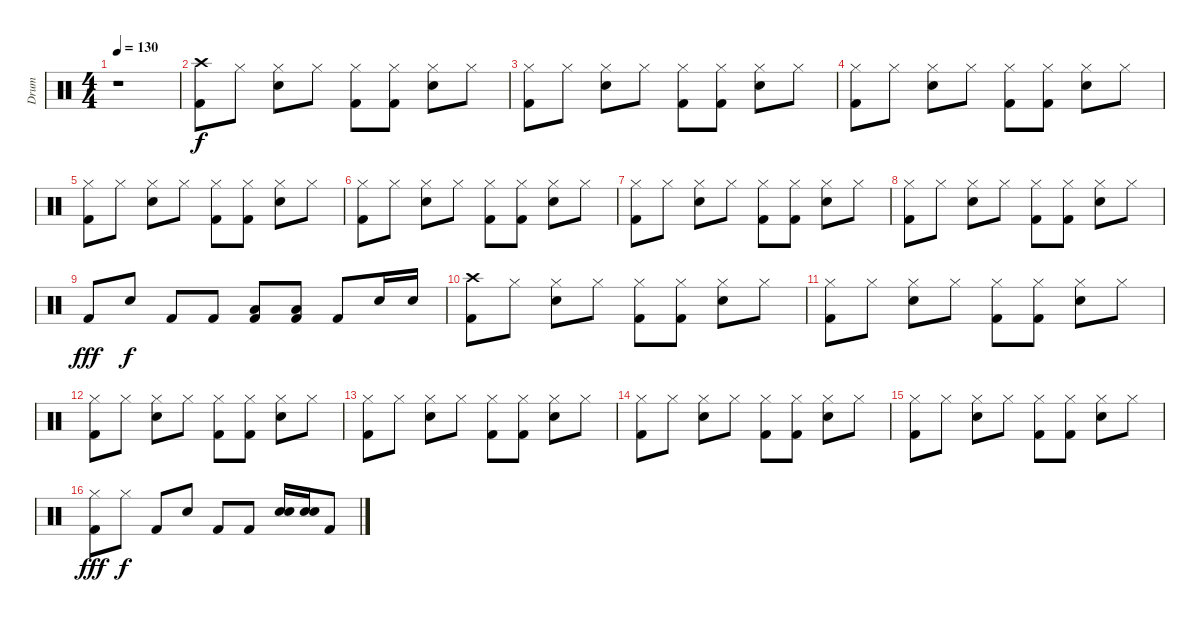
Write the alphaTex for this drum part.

\track ("Drum" "Drum") {instrument percussion}
\staff {score}
\articulation defaults
\ts (4 4)
\tempo 130
\clef neutral
\ks c
r.1{dy f} |
("Crash high (hit)" "Kick (hit) 2").8 "Hi-Hat (closed)".8 ("Hi-Hat (closed)" "Snare (hit) 2").8 "Hi-Hat (closed)".8 ("Hi-Hat (closed)" "Kick (hit) 2").8 ("Hi-Hat (closed)" "Kick (hit) 2").8 ("Hi-Hat (closed)" "Snare (hit) 2").8 "Hi-Hat (closed)".8 |
("Hi-Hat (closed)" "Kick (hit) 2").8 "Hi-Hat (closed)".8 ("Hi-Hat (closed)" "Snare (hit) 2").8 "Hi-Hat (closed)".8 ("Hi-Hat (closed)" "Kick (hit) 2").8 ("Hi-Hat (closed)" "Kick (hit) 2").8 ("Hi-Hat (closed)" "Snare (hit) 2").8 "Hi-Hat (closed)".8 |
("Hi-Hat (closed)" "Kick (hit) 2").8 "Hi-Hat (closed)".8 ("Hi-Hat (closed)" "Snare (hit) 2").8 "Hi-Hat (closed)".8 ("Hi-Hat (closed)" "Kick (hit) 2").8 ("Hi-Hat (closed)" "Kick (hit) 2").8 ("Hi-Hat (closed)" "Snare (hit) 2").8 "Hi-Hat (closed)".8 |
("Hi-Hat (closed)" "Kick (hit) 2").8 "Hi-Hat (closed)".8 ("Hi-Hat (closed)" "Snare (hit) 2").8 "Hi-Hat (closed)".8 ("Hi-Hat (closed)" "Kick (hit) 2").8 ("Hi-Hat (closed)" "Kick (hit) 2").8 ("Hi-Hat (closed)" "Snare (hit) 2").8 "Hi-Hat (closed)".8 |
("Hi-Hat (closed)" "Kick (hit) 2").8 "Hi-Hat (closed)".8 ("Hi-Hat (closed)" "Snare (hit) 2").8 "Hi-Hat (closed)".8 ("Hi-Hat (closed)" "Kick (hit) 2").8 ("Hi-Hat (closed)" "Kick (hit) 2").8 ("Hi-Hat (closed)" "Snare (hit) 2").8 "Hi-Hat (closed)".8 |
("Hi-Hat (closed)" "Kick (hit) 2").8 "Hi-Hat (closed)".8 ("Hi-Hat (closed)" "Snare (hit) 2").8 "Hi-Hat (closed)".8 ("Hi-Hat (closed)" "Kick (hit) 2").8 ("Hi-Hat (closed)" "Kick (hit) 2").8 ("Hi-Hat (closed)" "Snare (hit) 2").8 "Hi-Hat (closed)".8 |
("Hi-Hat (closed)" "Kick (hit) 2").8 "Hi-Hat (closed)".8 ("Hi-Hat (closed)" "Snare (hit) 2").8 "Hi-Hat (closed)".8 ("Hi-Hat (closed)" "Kick (hit) 2").8 ("Hi-Hat (closed)" "Kick (hit) 2").8 ("Hi-Hat (closed)" "Snare (hit) 2").8 "Hi-Hat (closed)".8 |
"Kick (hit) 2".8{dy fff} "Snare (hit) 2".8{dy f} "Kick (hit) 2".8 "Kick (hit) 2".8 ("Low Floor Tom (hit)" "Kick (hit) 2").8 ("Low Floor Tom (hit)" "Kick (hit) 2").8 "Kick (hit) 2".8 "Snare (hit) 2".16 "Snare (hit) 2".16 |
("Crash high (hit)" "Kick (hit) 2").8 "Hi-Hat (closed)".8 ("Hi-Hat (closed)" "Snare (hit) 2").8 "Hi-Hat (closed)".8 ("Hi-Hat (closed)" "Kick (hit) 2").8 ("Hi-Hat (closed)" "Kick (hit) 2").8 ("Hi-Hat (closed)" "Snare (hit) 2").8 "Hi-Hat (closed)".8 |
("Hi-Hat (closed)" "Kick (hit) 2").8 "Hi-Hat (closed)".8 ("Hi-Hat (closed)" "Snare (hit) 2").8 "Hi-Hat (closed)".8 ("Hi-Hat (closed)" "Kick (hit) 2").8 ("Hi-Hat (closed)" "Kick (hit) 2").8 ("Hi-Hat (closed)" "Snare (hit) 2").8 "Hi-Hat (closed)".8 |
("Hi-Hat (closed)" "Kick (hit) 2").8 "Hi-Hat (closed)".8 ("Hi-Hat (closed)" "Snare (hit) 2").8 "Hi-Hat (closed)".8 ("Hi-Hat (closed)" "Kick (hit) 2").8 ("Hi-Hat (closed)" "Kick (hit) 2").8 ("Hi-Hat (closed)" "Snare (hit) 2").8 "Hi-Hat (closed)".8 |
("Hi-Hat (closed)" "Kick (hit) 2").8 "Hi-Hat (closed)".8 ("Hi-Hat (closed)" "Snare (hit) 2").8 "Hi-Hat (closed)".8 ("Hi-Hat (closed)" "Kick (hit) 2").8 ("Hi-Hat (closed)" "Kick (hit) 2").8 ("Hi-Hat (closed)" "Snare (hit) 2").8 "Hi-Hat (closed)".8 |
("Hi-Hat (closed)" "Kick (hit) 2").8 "Hi-Hat (closed)".8 ("Hi-Hat (closed)" "Snare (hit) 2").8 "Hi-Hat (closed)".8 ("Hi-Hat (closed)" "Kick (hit) 2").8 ("Hi-Hat (closed)" "Kick (hit) 2").8 ("Hi-Hat (closed)" "Snare (hit) 2").8 "Hi-Hat (closed)".8 |
("Hi-Hat (closed)" "Kick (hit) 2").8 "Hi-Hat (closed)".8 ("Hi-Hat (closed)" "Snare (hit) 2").8 "Hi-Hat (closed)".8 ("Hi-Hat (closed)" "Kick (hit) 2").8 ("Hi-Hat (closed)" "Kick (hit) 2").8 ("Hi-Hat (closed)" "Snare (hit) 2").8 "Hi-Hat (closed)".8 |
("Hi-Hat (closed)" "Kick (hit) 2").8{dy fff} "Hi-Hat (closed)".8{dy f} "Kick (hit) 2".8 "Snare (hit) 2".8 "Kick (hit) 2".8 "Kick (hit) 2".8 ("Snare (hit) 2" "Electric Snare (hit)").16 ("Snare (hit) 2" "Electric Snare (hit)").16 "Kick (hit) 2".8
